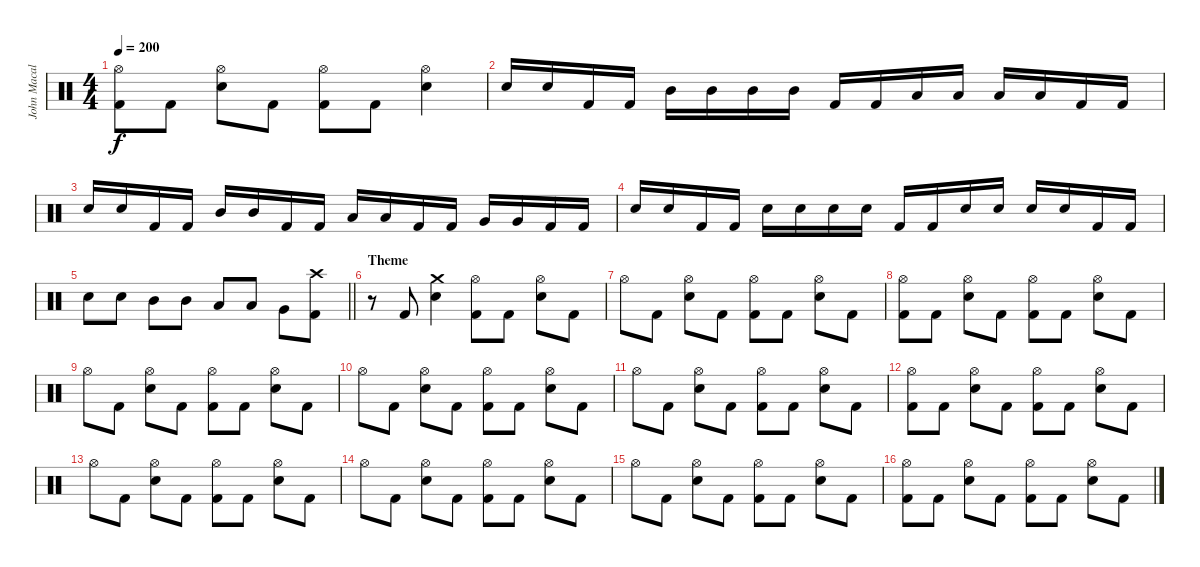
\track ("John Macaluso" "John Macal") {instrument percussion}
\staff {score}
\articulation defaults
\ts (4 4)
\tempo 200
\clef neutral
\ks c
("Hi-Hat (open)" "Kick (hit) 2").8{dy f} "Kick (hit) 2".8 ("Hi-Hat (open)" "Snare (hit) 2").8 "Kick (hit) 2".8 ("Hi-Hat (open)" "Kick (hit) 2").8 "Kick (hit) 2".8 ("Hi-Hat (open)" "Snare (hit) 2").4 |
"Snare (hit) 2".16 "Snare (hit) 2".16 "Kick (hit) 2".16 "Kick (hit) 2".16 "Mid Tom (hit)".16 "Mid Tom (hit)".16 "Mid Tom (hit)".16 "Mid Tom (hit)".16 "Kick (hit) 2".16 "Kick (hit) 2".16 "Low Tom (hit)".16 "Low Tom (hit)".16 "Low Tom (hit)".16 "Low Tom (hit)".16 "Kick (hit) 2".16 "Kick (hit) 2".16 |
"Snare (hit) 2".16 "Snare (hit) 2".16 "Kick (hit) 2".16 "Kick (hit) 2".16 "Mid Tom (hit)".16 "Mid Tom (hit)".16 "Kick (hit) 2".16 "Kick (hit) 2".16 "Low Tom (hit)".16 "Low Tom (hit)".16 "Kick (hit) 2".16 "Kick (hit) 2".16 "Very Low Tom (hit)".16 "Very Low Tom (hit)".16 "Kick (hit) 2".16 "Kick (hit) 2".16 |
"Snare (hit) 2".16 "Snare (hit) 2".16 "Kick (hit) 2".16 "Kick (hit) 2".16 "Snare (hit) 2".16 "Snare (hit) 2".16 "Snare (hit) 2".16 "Snare (hit) 2".16 "Kick (hit) 2".16 "Kick (hit) 2".16 "Snare (hit) 2".16 "Snare (hit) 2".16 "Snare (hit) 2".16 "Snare (hit) 2".16 "Kick (hit) 2".16 "Kick (hit) 2".16 |
\barLineRight lightlight "Snare (hit) 2".8 "Snare (hit) 2".8 "Mid Tom (hit)".8 "Mid Tom (hit)".8 "Low Tom (hit)".8 "Low Tom (hit)".8 "Very Low Tom (hit)".8
("Crash high (hit)" "Kick (hit) 2").8 |
\section ("" "Theme")
r.8 "Kick (hit) 2".8 ("Crash medium (hit)" "Snare (hit) 2").4 ("Hi-Hat (open)" "Kick (hit) 2").8 "Kick (hit) 2".8 ("Hi-Hat (open)" "Snare (hit) 2").8 "Kick (hit) 2".8 |
"Hi-Hat (open)".8 "Kick (hit) 2".8 ("Hi-Hat (open)" "Snare (hit) 2").8 "Kick (hit) 2".8 ("Hi-Hat (open)" "Kick (hit) 2").8 "Kick (hit) 2".8 ("Hi-Hat (open)" "Snare (hit) 2").8 "Kick (hit) 2".8 |
("Hi-Hat (open)" "Kick (hit) 2").8 "Kick (hit) 2".8 ("Hi-Hat (open)" "Snare (hit) 2").8 "Kick (hit) 2".8 ("Hi-Hat (open)" "Kick (hit) 2").8 "Kick (hit) 2".8 ("Hi-Hat (open)" "Snare (hit) 2").8 "Kick (hit) 2".8 |
"Hi-Hat (open)".8 "Kick (hit) 2".8 ("Hi-Hat (open)" "Snare (hit) 2").8 "Kick (hit) 2".8 ("Hi-Hat (open)" "Kick (hit) 2").8 "Kick (hit) 2".8 ("Hi-Hat (open)" "Snare (hit) 2").8 "Kick (hit) 2".8 |
"Hi-Hat (open)".8 "Kick (hit) 2".8 ("Hi-Hat (open)" "Snare (hit) 2").8 "Kick (hit) 2".8 ("Hi-Hat (open)" "Kick (hit) 2").8 "Kick (hit) 2".8 ("Hi-Hat (open)" "Snare (hit) 2").8 "Kick (hit) 2".8 |
"Hi-Hat (open)".8 "Kick (hit) 2".8 ("Hi-Hat (open)" "Snare (hit) 2").8 "Kick (hit) 2".8 ("Hi-Hat (open)" "Kick (hit) 2").8 "Kick (hit) 2".8 ("Hi-Hat (open)" "Snare (hit) 2").8 "Kick (hit) 2".8 |
("Hi-Hat (open)" "Kick (hit) 2").8 "Kick (hit) 2".8 ("Hi-Hat (open)" "Snare (hit) 2").8 "Kick (hit) 2".8 ("Hi-Hat (open)" "Kick (hit) 2").8 "Kick (hit) 2".8 ("Hi-Hat (open)" "Snare (hit) 2").8 "Kick (hit) 2".8 |
"Hi-Hat (open)".8 "Kick (hit) 2".8 ("Hi-Hat (open)" "Snare (hit) 2").8 "Kick (hit) 2".8 ("Hi-Hat (open)" "Kick (hit) 2").8 "Kick (hit) 2".8 ("Hi-Hat (open)" "Snare (hit) 2").8 "Kick (hit) 2".8 |
"Hi-Hat (open)".8 "Kick (hit) 2".8 ("Hi-Hat (open)" "Snare (hit) 2").8 "Kick (hit) 2".8 ("Hi-Hat (open)" "Kick (hit) 2").8 "Kick (hit) 2".8 ("Hi-Hat (open)" "Snare (hit) 2").8 "Kick (hit) 2".8 |
"Hi-Hat (open)".8 "Kick (hit) 2".8 ("Hi-Hat (open)" "Snare (hit) 2").8 "Kick (hit) 2".8 ("Hi-Hat (open)" "Kick (hit) 2").8 "Kick (hit) 2".8 ("Hi-Hat (open)" "Snare (hit) 2").8 "Kick (hit) 2".8 |
("Hi-Hat (open)" "Kick (hit) 2").8 "Kick (hit) 2".8 ("Hi-Hat (open)" "Snare (hit) 2").8 "Kick (hit) 2".8 ("Hi-Hat (open)" "Kick (hit) 2").8 "Kick (hit) 2".8 ("Hi-Hat (open)" "Snare (hit) 2").8 "Kick (hit) 2".8
